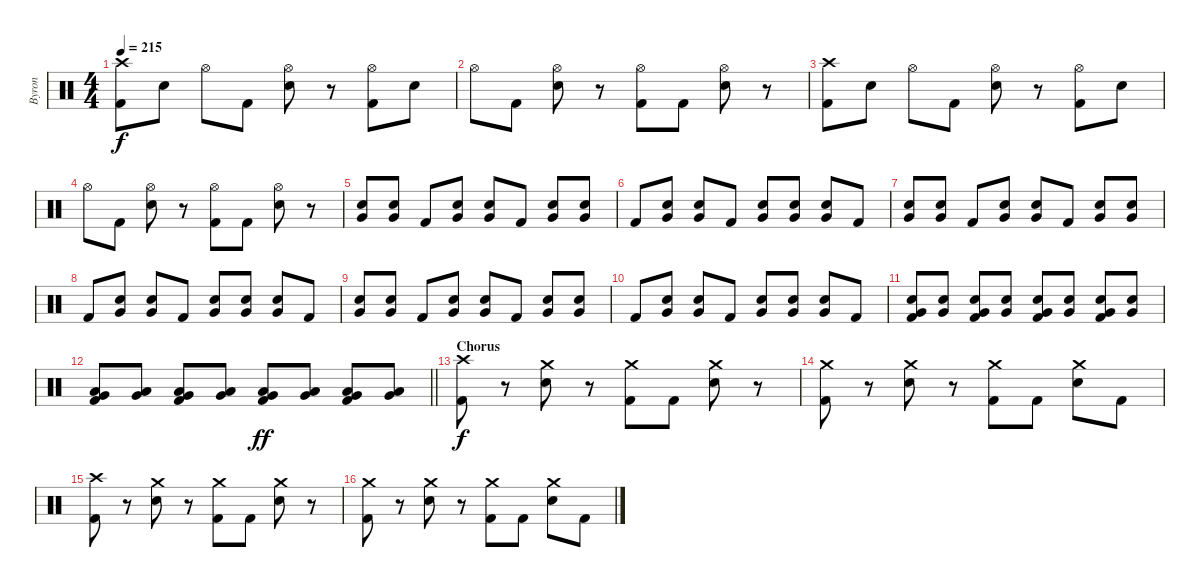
\track ("Byron" "Byron") {instrument percussion}
\staff {score}
\articulation defaults
\ts (4 4)
\tempo 215
\clef neutral
\ks c
("Crash high (hit)" "Kick (hit) 2").8{dy f} "Electric Snare (hit)".8 "Hi-Hat (open)".8 "Kick (hit) 2".8 ("Hi-Hat (open)" "Electric Snare (hit)").8 r.8 ("Hi-Hat (open)" "Kick (hit) 2").8 "Electric Snare (hit)".8 |
"Hi-Hat (open)".8 "Kick (hit) 2".8 ("Hi-Hat (open)" "Electric Snare (hit)").8 r.8 ("Hi-Hat (open)" "Kick (hit) 2").8 "Kick (hit) 2".8 ("Hi-Hat (open)" "Electric Snare (hit)").8 r.8 |
("Crash high (hit)" "Kick (hit) 2").8 "Electric Snare (hit)".8 "Hi-Hat (open)".8 "Kick (hit) 2".8 ("Hi-Hat (open)" "Electric Snare (hit)").8 r.8 ("Hi-Hat (open)" "Kick (hit) 2").8 "Electric Snare (hit)".8 |
"Hi-Hat (open)".8 "Kick (hit) 2".8 ("Hi-Hat (open)" "Electric Snare (hit)").8 r.8 ("Hi-Hat (open)" "Kick (hit) 2").8 "Kick (hit) 2".8 ("Hi-Hat (open)" "Electric Snare (hit)").8 r.8 |
("Very Low Tom (hit)" "Electric Snare (hit)").8 ("Very Low Tom (hit)" "Electric Snare (hit)").8 "Kick (hit) 2".8 ("Very Low Tom (hit)" "Electric Snare (hit)").8 ("Very Low Tom (hit)" "Electric Snare (hit)").8 "Kick (hit) 2".8 ("Very Low Tom (hit)" "Electric Snare (hit)").8 ("Very Low Tom (hit)" "Electric Snare (hit)").8 |
"Kick (hit) 2".8 ("Very Low Tom (hit)" "Electric Snare (hit)").8 ("Very Low Tom (hit)" "Electric Snare (hit)").8 "Kick (hit) 2".8 ("Very Low Tom (hit)" "Electric Snare (hit)").8 ("Very Low Tom (hit)" "Electric Snare (hit)").8 ("Very Low Tom (hit)" "Electric Snare (hit)").8 "Kick (hit) 2".8 |
("Very Low Tom (hit)" "Electric Snare (hit)").8 ("Very Low Tom (hit)" "Electric Snare (hit)").8 "Kick (hit) 2".8 ("Very Low Tom (hit)" "Electric Snare (hit)").8 ("Very Low Tom (hit)" "Electric Snare (hit)").8 "Kick (hit) 2".8 ("Very Low Tom (hit)" "Electric Snare (hit)").8 ("Very Low Tom (hit)" "Electric Snare (hit)").8 |
"Kick (hit) 2".8 ("Very Low Tom (hit)" "Electric Snare (hit)").8 ("Very Low Tom (hit)" "Electric Snare (hit)").8 "Kick (hit) 2".8 ("Very Low Tom (hit)" "Electric Snare (hit)").8 ("Very Low Tom (hit)" "Electric Snare (hit)").8 ("Very Low Tom (hit)" "Electric Snare (hit)").8 "Kick (hit) 2".8 |
("Very Low Tom (hit)" "Electric Snare (hit)").8 ("Very Low Tom (hit)" "Electric Snare (hit)").8 "Kick (hit) 2".8 ("Very Low Tom (hit)" "Electric Snare (hit)").8 ("Very Low Tom (hit)" "Electric Snare (hit)").8 "Kick (hit) 2".8 ("Very Low Tom (hit)" "Electric Snare (hit)").8 ("Very Low Tom (hit)" "Electric Snare (hit)").8 |
"Kick (hit) 2".8 ("Very Low Tom (hit)" "Electric Snare (hit)").8 ("Very Low Tom (hit)" "Electric Snare (hit)").8 "Kick (hit) 2".8 ("Very Low Tom (hit)" "Electric Snare (hit)").8 ("Very Low Tom (hit)" "Electric Snare (hit)").8 ("Very Low Tom (hit)" "Electric Snare (hit)").8 "Kick (hit) 2".8 |
("Very Low Tom (hit)" "Electric Snare (hit)" "Kick (hit) 2").8 ("Very Low Tom (hit)" "Electric Snare (hit)").8 ("Very Low Tom (hit)" "Electric Snare (hit)" "Kick (hit) 2").8 ("Very Low Tom (hit)" "Electric Snare (hit)").8 ("Very Low Tom (hit)" "Electric Snare (hit)" "Kick (hit) 2").8 ("Very Low Tom (hit)" "Electric Snare (hit)").8 ("Very Low Tom (hit)" "Electric Snare (hit)" "Kick (hit) 2").8 ("Very Low Tom (hit)" "Electric Snare (hit)").8 |
\barLineRight lightlight
("Very Low Tom (hit)" "Low Tom (hit)" "Kick (hit) 2").8 ("Very Low Tom (hit)" "Low Tom (hit)").8 ("Very Low Tom (hit)" "Low Tom (hit)" "Kick (hit) 2").8 ("Very Low Tom (hit)" "Low Tom (hit)").8 ("Very Low Tom (hit)" "Low Tom (hit)" "Kick (hit) 2").8{dy ff} ("Very Low Tom (hit)" "Low Tom (hit)").8 ("Very Low Tom (hit)" "Low Tom (hit)" "Kick (hit) 2").8 ("Very Low Tom (hit)" "Low Tom (hit)").8 |
\section ("" "Chorus")
("Crash high (hit)" "Kick (hit) 2").8{dy f} r.8 ("Crash medium (hit)" "Electric Snare (hit)").8 r.8 ("Crash medium (hit)" "Kick (hit) 2").8 "Kick (hit) 2".8 ("Crash medium (hit)" "Electric Snare (hit)").8 r.8 |
("Crash medium (hit)" "Kick (hit) 2").8 r.8 ("Crash medium (hit)" "Electric Snare (hit)").8 r.8 ("Crash medium (hit)" "Kick (hit) 2").8 "Kick (hit) 2".8 ("Crash medium (hit)" "Electric Snare (hit)").8 "Kick (hit) 2".8 |
("Crash high (hit)" "Kick (hit) 2").8 r.8 ("Crash medium (hit)" "Electric Snare (hit)").8 r.8 ("Crash medium (hit)" "Kick (hit) 2").8 "Kick (hit) 2".8 ("Crash medium (hit)" "Electric Snare (hit)").8 r.8 |
("Crash medium (hit)" "Kick (hit) 2").8 r.8 ("Crash medium (hit)" "Electric Snare (hit)").8 r.8 ("Crash medium (hit)" "Kick (hit) 2").8 "Kick (hit) 2".8 ("Crash medium (hit)" "Electric Snare (hit)").8 "Kick (hit) 2".8
